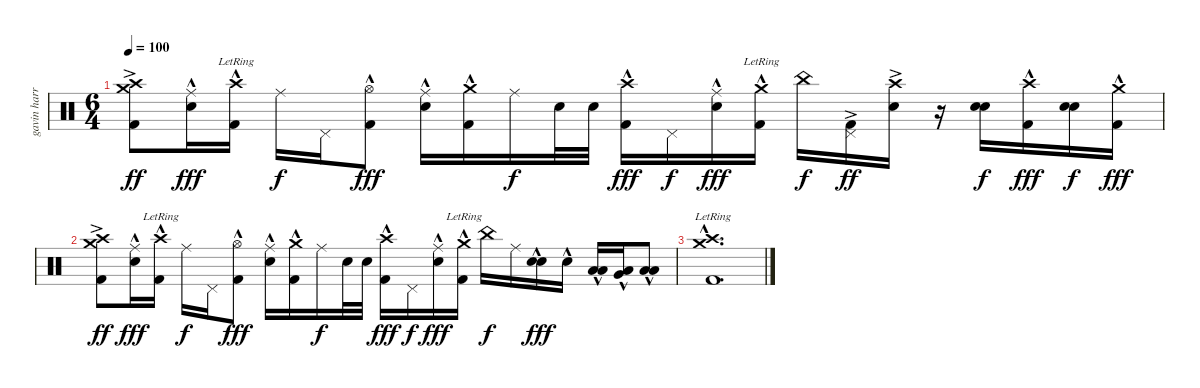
\track ("gavin harrison" "gavin harr") {instrument percussion}
\staff {score}
\articulation defaults
\ts (6 4)
\tempo 100
\clef neutral
\ks c
("Crash high (hit)" "Crash medium (hit)" "Kick (hit) 2"{ac}).8{dy ff} ("Ride (middle)" "Electric Snare (hit)"{hac}).16{dy fff} ("Crash high (hit)" "Kick (hit) 2"{hac lr}).16 "Ride (middle)".16{dy f} "Pedal Hi-Hat (hit)".16 ("Hi-Hat (open)" "Kick (hit) 2"{hac}).8{dy fff} ("Ride (middle)" "Electric Snare (hit)"{hac}).16 ("Crash medium (hit)" "Kick (hit) 2"{hac}).16 "Ride (middle)".16{dy f} "Electric Snare (hit)".32 "Electric Snare (hit)".32 ("Crash high (hit)" "Kick (hit) 2"{hac}).16{dy fff} "Pedal Hi-Hat (hit)".16{dy f} ("Ride (middle)" "Electric Snare (hit)"{hac}).16{dy fff} ("Crash medium (hit)" "Kick (hit) 2"{hac lr}).16 "China (hit)".16{dy f} ("Pedal Hi-Hat (hit)" "Kick (hit) 2"{ac}).16{dy ff} ("Crash high (hit)" "Electric Snare (hit)"{ac}).16 r.16 ("Electric Snare (hit)" "Electric Snare (hit)").16{dy f} ("Crash high (hit)" "Kick (hit) 2"{hac}).16{dy fff} ("Electric Snare (hit)" "Electric Snare (hit)").16{dy f} ("Crash medium (hit)" "Kick (hit) 2"{hac}).16{dy fff} |
("Crash high (hit)" "Crash medium (hit)" "Kick (hit) 2"{ac}).8{dy ff} ("Ride (middle)" "Electric Snare (hit)"{hac}).16{dy fff} ("Crash high (hit)" "Kick (hit) 2"{hac lr}).16 "Ride (middle)".16{dy f} "Pedal Hi-Hat (hit)".16 ("Hi-Hat (open)" "Kick (hit) 2"{hac}).8{dy fff} ("Ride (middle)" "Electric Snare (hit)"{hac}).16 ("Crash medium (hit)" "Kick (hit) 2"{hac}).16 "Ride (middle)".16{dy f} "Electric Snare (hit)".32 "Electric Snare (hit)".32 ("Crash high (hit)" "Kick (hit) 2"{hac}).16{dy fff} "Pedal Hi-Hat (hit)".16{dy f} ("Ride (middle)" "Electric Snare (hit)"{hac}).16{dy fff} ("Crash medium (hit)" "Kick (hit) 2"{hac lr}).16 "China (hit)".16{dy f} "Ride (middle)".16 ("Electric Snare (hit)" "Electric Snare (hit)"{hac}).16{dy fff} "Electric Snare (hit)"{hac}.16 ("Low Tom (hit)"{hac} "Low Tom (hit)").16 ("Very Low Tom (hit)" "Low Floor Tom (hit)"{hac}).16 ("Low Floor Tom (hit)"{hac} "Low Floor Tom (hit)"{hac}).8 |
("Crash high (hit)" "Crash medium (hit)" "Kick (hit) 2"{hac lr}).1{d}
